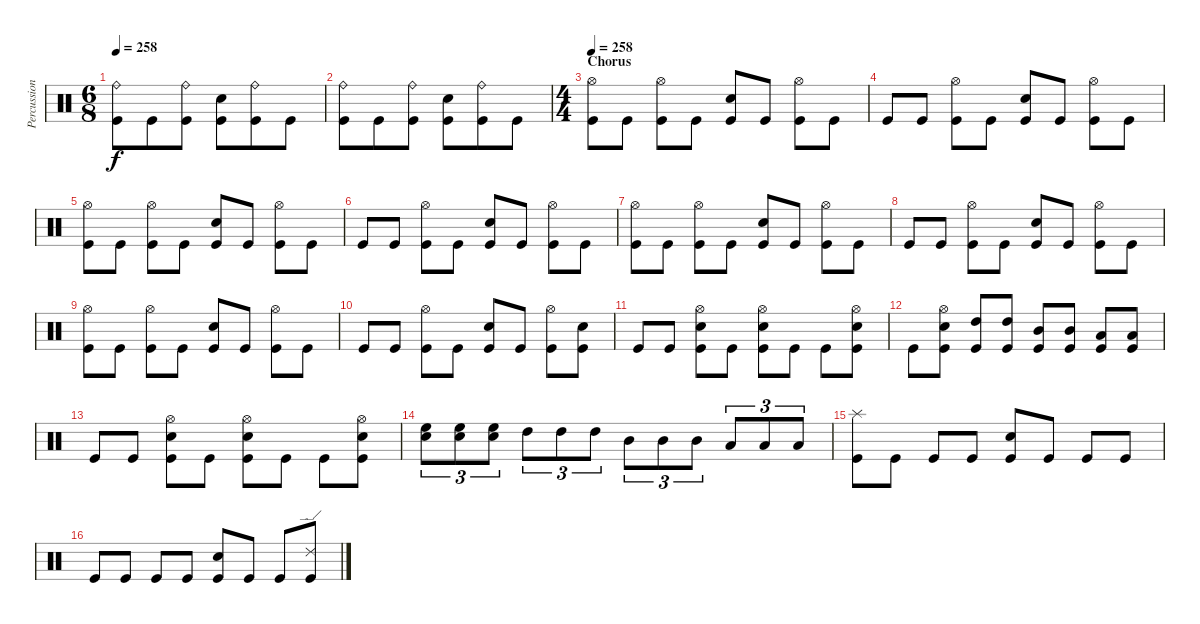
\track ("Percussion" "Percussion") {instrument percussion}
\staff {score}
\articulation defaults
\ts (6 8)
\tempo 258
\clef neutral
\ks c
("Ride (bell)" "Kick (hit)").8{dy f} "Kick (hit)".8 ("Ride (bell)" "Kick (hit)").8 ("Snare (hit) 2" "Kick (hit)").8 ("Ride (bell)" "Kick (hit)").8 "Kick (hit)".8 |
("Ride (bell)" "Kick (hit)").8 "Kick (hit)".8 ("Ride (bell)" "Kick (hit)").8 ("Snare (hit) 2" "Kick (hit)").8 ("Ride (bell)" "Kick (hit)").8 "Kick (hit)".8 |
\ts (4 4)
\section ("" "Chorus")
\tempo 261
\tempo 258
("Hi-Hat (open)" "Kick (hit)").8 "Kick (hit)".8 ("Hi-Hat (open)" "Kick (hit)").8 "Kick (hit)".8 ("Snare (hit) 2" "Kick (hit)").8 "Kick (hit)".8 ("Hi-Hat (open)" "Kick (hit)").8 "Kick (hit)".8 |
"Kick (hit)".8 "Kick (hit)".8 ("Hi-Hat (open)" "Kick (hit)").8 "Kick (hit)".8 ("Snare (hit) 2" "Kick (hit)").8 "Kick (hit)".8 ("Hi-Hat (open)" "Kick (hit)").8 "Kick (hit)".8 |
("Hi-Hat (open)" "Kick (hit)").8 "Kick (hit)".8 ("Hi-Hat (open)" "Kick (hit)").8 "Kick (hit)".8 ("Snare (hit) 2" "Kick (hit)").8 "Kick (hit)".8 ("Hi-Hat (open)" "Kick (hit)").8 "Kick (hit)".8 |
"Kick (hit)".8 "Kick (hit)".8 ("Hi-Hat (open)" "Kick (hit)").8 "Kick (hit)".8 ("Snare (hit) 2" "Kick (hit)").8 "Kick (hit)".8 ("Hi-Hat (open)" "Kick (hit)").8 "Kick (hit)".8 |
("Hi-Hat (open)" "Kick (hit)").8 "Kick (hit)".8 ("Hi-Hat (open)" "Kick (hit)").8 "Kick (hit)".8 ("Snare (hit) 2" "Kick (hit)").8 "Kick (hit)".8 ("Hi-Hat (open)" "Kick (hit)").8 "Kick (hit)".8 |
"Kick (hit)".8 "Kick (hit)".8 ("Hi-Hat (open)" "Kick (hit)").8 "Kick (hit)".8 ("Snare (hit) 2" "Kick (hit)").8 "Kick (hit)".8 ("Hi-Hat (open)" "Kick (hit)").8 "Kick (hit)".8 |
("Hi-Hat (open)" "Kick (hit)").8 "Kick (hit)".8 ("Hi-Hat (open)" "Kick (hit)").8 "Kick (hit)".8 ("Snare (hit) 2" "Kick (hit)").8 "Kick (hit)".8 ("Hi-Hat (open)" "Kick (hit)").8 "Kick (hit)".8 |
"Kick (hit)".8 "Kick (hit)".8 ("Hi-Hat (open)" "Kick (hit)").8 "Kick (hit)".8 ("Snare (hit) 2" "Kick (hit)").8 "Kick (hit)".8 ("Hi-Hat (open)" "Kick (hit)").8 ("Snare (hit) 2" "Kick (hit)").8 |
"Kick (hit)".8 "Kick (hit)".8 ("Snare (hit) 2" "Hi-Hat (open)" "Kick (hit)").8 "Kick (hit)".8 ("Snare (hit) 2" "Hi-Hat (open)" "Kick (hit)").8 "Kick (hit)".8 "Kick (hit)".8 ("Snare (hit) 2" "Hi-Hat (open)" "Kick (hit)").8 |
"Kick (hit)".8 ("Snare (hit) 2" "Hi-Hat (open)" "Kick (hit)").8 ("High Tom (hit)" "Kick (hit)").8 ("High Tom (hit)" "Kick (hit)").8 ("Mid Tom (hit)" "Kick (hit)").8 ("Mid Tom (hit)" "Kick (hit)").8 ("Low Tom (hit)" "Kick (hit)").8 ("Low Tom (hit)" "Kick (hit)").8 |
"Kick (hit)".8 "Kick (hit)".8 ("Snare (hit) 2" "Hi-Hat (open)" "Kick (hit)").8 "Kick (hit)".8 ("Snare (hit) 2" "Hi-Hat (open)" "Kick (hit)").8 "Kick (hit)".8 "Kick (hit)".8 ("Snare (hit) 2" "Hi-Hat (open)" "Kick (hit)").8 |
("High Floor Tom (hit)" "Snare (hit) 2").8{tu (3 2)} ("High Floor Tom (hit)" "Snare (hit) 2").8{tu (3 2)} ("High Floor Tom (hit)" "Snare (hit) 2").8{tu (3 2)} "High Tom (hit)".8{tu (3 2)} "High Tom (hit)".8{tu (3 2)} "High Tom (hit)".8{tu (3 2)} "Mid Tom (hit)".8{tu (3 2)} "Mid Tom (hit)".8{tu (3 2)} "Mid Tom (hit)".8{tu (3 2)} "Low Tom (hit)".8{tu (3 2)} "Low Tom (hit)".8{tu (3 2)} "Low Tom (hit)".8{tu (3 2)} |
("Splash (hit)" "Kick (hit)").8 "Kick (hit)".8 "Kick (hit)".8 "Kick (hit)".8 ("Snare (hit) 2" "Kick (hit)").8 "Kick (hit)".8 "Kick (hit)".8 "Kick (hit)".8 |
"Kick (hit)".8 "Kick (hit)".8 "Kick (hit)".8 "Kick (hit)".8 ("Snare (hit) 2" "Kick (hit)").8 "Kick (hit)".8 "Kick (hit)".8 ("Ride (edge) 2" "Kick (hit)").8
